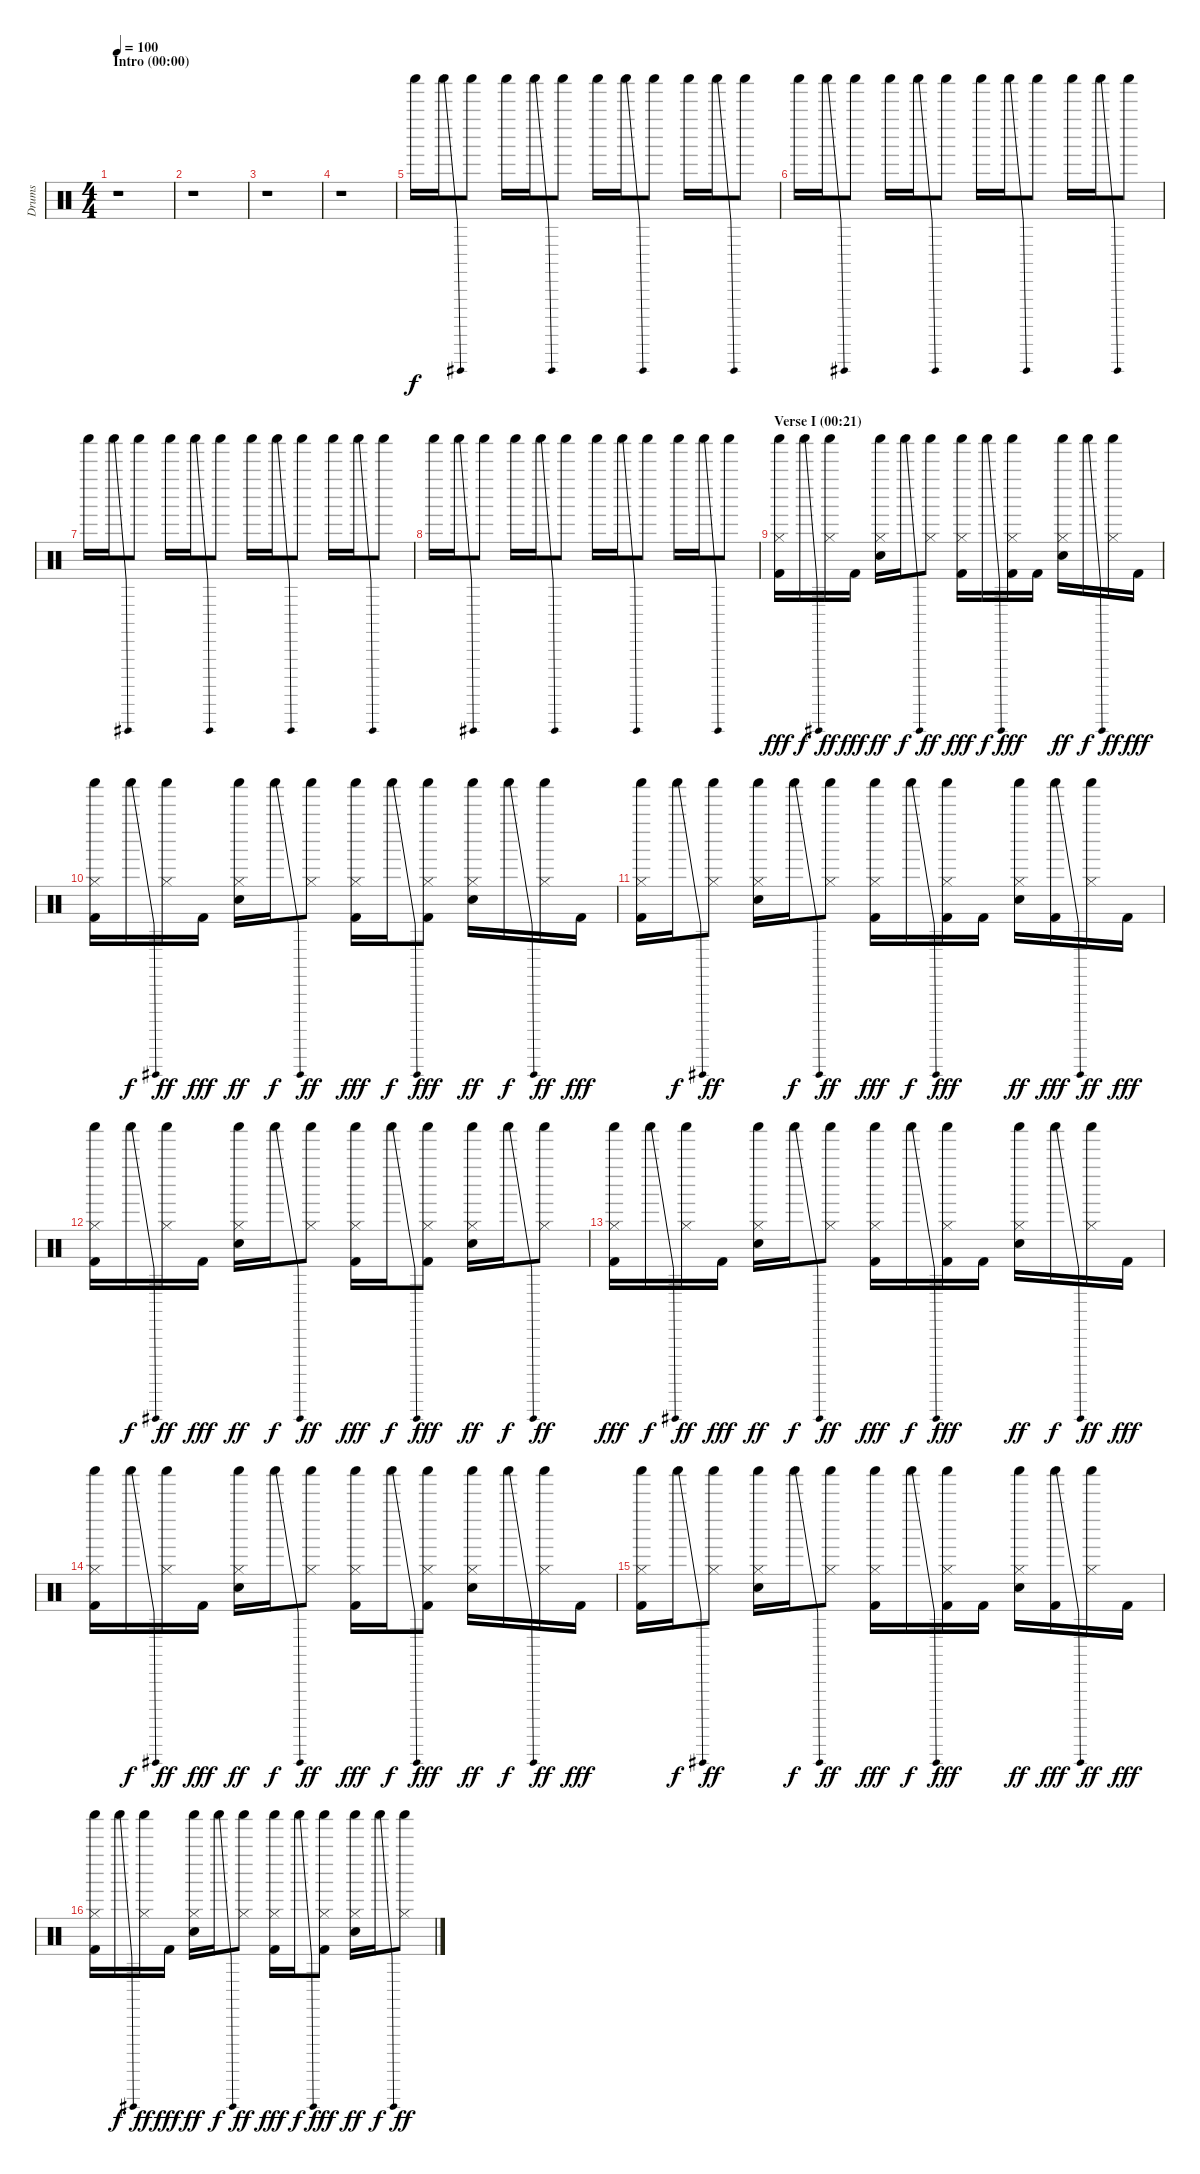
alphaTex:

\track ("Drums" "Drums") {instrument percussion}
\staff {score}
\articulation defaults
\ts (4 4)
\section ("" "Intro (00:00)")
\tempo 100
\clef neutral
\ks c
r.1{dy f} |
r.1 |
r.1 |
r.1 |
"Shaker (hit)".16 "Shaker (hit)"{be (bend 0 0 60 12)}.16 "Shaker (hit)".8 "Shaker (hit)".16 "Shaker (hit)"{be (bend 0 0 60 12)}.16 "Shaker (hit)".8 "Shaker (hit)".16 "Shaker (hit)"{be (bend 0 0 60 12)}.16 "Shaker (hit)".8 "Shaker (hit)".16 "Shaker (hit)"{be (bend 0 0 60 12)}.16 "Shaker (hit)".8 |
"Shaker (hit)".16 "Shaker (hit)"{be (bend 0 0 60 12)}.16 "Shaker (hit)".8 "Shaker (hit)".16 "Shaker (hit)"{be (bend 0 0 60 12)}.16 "Shaker (hit)".8 "Shaker (hit)".16 "Shaker (hit)"{be (bend 0 0 60 12)}.16 "Shaker (hit)".8 "Shaker (hit)".16 "Shaker (hit)"{be (bend 0 0 60 12)}.16 "Shaker (hit)".8 |
"Shaker (hit)".16 "Shaker (hit)"{be (bend 0 0 60 12)}.16 "Shaker (hit)".8 "Shaker (hit)".16 "Shaker (hit)"{be (bend 0 0 60 12)}.16 "Shaker (hit)".8 "Shaker (hit)".16 "Shaker (hit)"{be (bend 0 0 60 12)}.16 "Shaker (hit)".8 "Shaker (hit)".16 "Shaker (hit)"{be (bend 0 0 60 12)}.16 "Shaker (hit)".8 |
"Shaker (hit)".16 "Shaker (hit)"{be (bend 0 0 60 12)}.16 "Shaker (hit)".8 "Shaker (hit)".16 "Shaker (hit)"{be (bend 0 0 60 12)}.16 "Shaker (hit)".8 "Shaker (hit)".16 "Shaker (hit)"{be (bend 0 0 60 12)}.16 "Shaker (hit)".8 "Shaker (hit)".16 "Shaker (hit)"{be (bend 0 0 60 12)}.16 "Shaker (hit)".8 |
\section ("" "Verse I (00:21)")
("Shaker (hit)" "Hi-Hat (closed)" "Kick (hit) 2").16{dy fff} "Shaker (hit)"{be (bend 0 0 60 12)}.16{dy f} ("Shaker (hit)" "Hi-Hat (closed)").16{dy ff} "Kick (hit) 2".16{dy fff} ("Shaker (hit)" "Hi-Hat (closed)" "Electric Snare (hit)").16{dy ff} "Shaker (hit)"{be (bend 0 0 60 12)}.16{dy f} ("Shaker (hit)" "Hi-Hat (closed)").8{dy ff} ("Shaker (hit)" "Hi-Hat (closed)" "Kick (hit) 2").16{dy fff} "Shaker (hit)"{be (bend 0 0 60 12)}.16{dy f} ("Shaker (hit)" "Hi-Hat (closed)" "Kick (hit) 2").16{dy fff} "Kick (hit) 2".16 ("Shaker (hit)" "Hi-Hat (closed)" "Electric Snare (hit)").16{dy ff} "Shaker (hit)"{be (bend 0 0 60 12)}.16{dy f} ("Shaker (hit)" "Hi-Hat (closed)").16{dy ff} "Kick (hit) 2".16{dy fff} |
("Shaker (hit)" "Hi-Hat (closed)" "Kick (hit) 2").16 "Shaker (hit)"{be (bend 0 0 60 12)}.16{dy f} ("Shaker (hit)" "Hi-Hat (closed)").16{dy ff} "Kick (hit) 2".16{dy fff} ("Shaker (hit)" "Hi-Hat (closed)" "Electric Snare (hit)").16{dy ff} "Shaker (hit)"{be (bend 0 0 60 12)}.16{dy f} ("Shaker (hit)" "Hi-Hat (closed)").8{dy ff} ("Shaker (hit)" "Hi-Hat (closed)" "Kick (hit) 2").16{dy fff} "Shaker (hit)"{be (bend 0 0 60 12)}.16{dy f} ("Shaker (hit)" "Hi-Hat (closed)" "Kick (hit) 2").8{dy fff} ("Shaker (hit)" "Hi-Hat (closed)" "Electric Snare (hit)").16{dy ff} "Shaker (hit)"{be (bend 0 0 60 12)}.16{dy f} ("Shaker (hit)" "Hi-Hat (closed)").16{dy ff} "Kick (hit) 2".16{dy fff} |
("Shaker (hit)" "Hi-Hat (closed)" "Kick (hit) 2").16 "Shaker (hit)"{be (bend 0 0 60 12)}.16{dy f} ("Shaker (hit)" "Hi-Hat (closed)").8{dy ff} ("Shaker (hit)" "Hi-Hat (closed)" "Electric Snare (hit)").16 "Shaker (hit)"{be (bend 0 0 60 12)}.16{dy f} ("Shaker (hit)" "Hi-Hat (closed)").8{dy ff} ("Shaker (hit)" "Hi-Hat (closed)" "Kick (hit) 2").16{dy fff} "Shaker (hit)"{be (bend 0 0 60 12)}.16{dy f} ("Shaker (hit)" "Hi-Hat (closed)" "Kick (hit) 2").16{dy fff} "Kick (hit) 2".16 ("Shaker (hit)" "Hi-Hat (closed)" "Electric Snare (hit)").16{dy ff} ("Shaker (hit)"{be (bend 0 0 60 12)} "Kick (hit) 2").16{dy fff} ("Shaker (hit)" "Hi-Hat (closed)").16{dy ff} "Kick (hit) 2".16{dy fff} |
("Shaker (hit)" "Hi-Hat (closed)" "Kick (hit) 2").16 "Shaker (hit)"{be (bend 0 0 60 12)}.16{dy f} ("Shaker (hit)" "Hi-Hat (closed)").16{dy ff} "Kick (hit) 2".16{dy fff} ("Shaker (hit)" "Hi-Hat (closed)" "Electric Snare (hit)").16{dy ff} "Shaker (hit)"{be (bend 0 0 60 12)}.16{dy f} ("Shaker (hit)" "Hi-Hat (closed)").8{dy ff} ("Shaker (hit)" "Hi-Hat (closed)" "Kick (hit) 2").16{dy fff} "Shaker (hit)"{be (bend 0 0 60 12)}.16{dy f} ("Shaker (hit)" "Hi-Hat (closed)" "Kick (hit) 2").8{dy fff} ("Shaker (hit)" "Hi-Hat (closed)" "Electric Snare (hit)").16{dy ff} "Shaker (hit)"{be (bend 0 0 60 12)}.16{dy f} ("Shaker (hit)" "Hi-Hat (closed)").8{dy ff} |
("Shaker (hit)" "Hi-Hat (closed)" "Kick (hit) 2").16{dy fff} "Shaker (hit)"{be (bend 0 0 60 12)}.16{dy f} ("Shaker (hit)" "Hi-Hat (closed)").16{dy ff} "Kick (hit) 2".16{dy fff} ("Shaker (hit)" "Hi-Hat (closed)" "Electric Snare (hit)").16{dy ff} "Shaker (hit)"{be (bend 0 0 60 12)}.16{dy f} ("Shaker (hit)" "Hi-Hat (closed)").8{dy ff} ("Shaker (hit)" "Hi-Hat (closed)" "Kick (hit) 2").16{dy fff} "Shaker (hit)"{be (bend 0 0 60 12)}.16{dy f} ("Shaker (hit)" "Hi-Hat (closed)" "Kick (hit) 2").16{dy fff} "Kick (hit) 2".16 ("Shaker (hit)" "Hi-Hat (closed)" "Electric Snare (hit)").16{dy ff} "Shaker (hit)"{be (bend 0 0 60 12)}.16{dy f} ("Shaker (hit)" "Hi-Hat (closed)").16{dy ff} "Kick (hit) 2".16{dy fff} |
("Shaker (hit)" "Hi-Hat (closed)" "Kick (hit) 2").16 "Shaker (hit)"{be (bend 0 0 60 12)}.16{dy f} ("Shaker (hit)" "Hi-Hat (closed)").16{dy ff} "Kick (hit) 2".16{dy fff} ("Shaker (hit)" "Hi-Hat (closed)" "Electric Snare (hit)").16{dy ff} "Shaker (hit)"{be (bend 0 0 60 12)}.16{dy f} ("Shaker (hit)" "Hi-Hat (closed)").8{dy ff} ("Shaker (hit)" "Hi-Hat (closed)" "Kick (hit) 2").16{dy fff} "Shaker (hit)"{be (bend 0 0 60 12)}.16{dy f} ("Shaker (hit)" "Hi-Hat (closed)" "Kick (hit) 2").8{dy fff} ("Shaker (hit)" "Hi-Hat (closed)" "Electric Snare (hit)").16{dy ff} "Shaker (hit)"{be (bend 0 0 60 12)}.16{dy f} ("Shaker (hit)" "Hi-Hat (closed)").16{dy ff} "Kick (hit) 2".16{dy fff} |
("Shaker (hit)" "Hi-Hat (closed)" "Kick (hit) 2").16 "Shaker (hit)"{be (bend 0 0 60 12)}.16{dy f} ("Shaker (hit)" "Hi-Hat (closed)").8{dy ff} ("Shaker (hit)" "Hi-Hat (closed)" "Electric Snare (hit)").16 "Shaker (hit)"{be (bend 0 0 60 12)}.16{dy f} ("Shaker (hit)" "Hi-Hat (closed)").8{dy ff} ("Shaker (hit)" "Hi-Hat (closed)" "Kick (hit) 2").16{dy fff} "Shaker (hit)"{be (bend 0 0 60 12)}.16{dy f} ("Shaker (hit)" "Hi-Hat (closed)" "Kick (hit) 2").16{dy fff} "Kick (hit) 2".16 ("Shaker (hit)" "Hi-Hat (closed)" "Electric Snare (hit)").16{dy ff} ("Shaker (hit)"{be (bend 0 0 60 12)} "Kick (hit) 2").16{dy fff} ("Shaker (hit)" "Hi-Hat (closed)").16{dy ff} "Kick (hit) 2".16{dy fff} |
("Shaker (hit)" "Hi-Hat (closed)" "Kick (hit) 2").16 "Shaker (hit)"{be (bend 0 0 60 12)}.16{dy f} ("Shaker (hit)" "Hi-Hat (closed)").16{dy ff} "Kick (hit) 2".16{dy fff} ("Shaker (hit)" "Hi-Hat (closed)" "Electric Snare (hit)").16{dy ff} "Shaker (hit)"{be (bend 0 0 60 12)}.16{dy f} ("Shaker (hit)" "Hi-Hat (closed)").8{dy ff} ("Shaker (hit)" "Hi-Hat (closed)" "Kick (hit) 2").16{dy fff} "Shaker (hit)"{be (bend 0 0 60 12)}.16{dy f} ("Shaker (hit)" "Hi-Hat (closed)" "Kick (hit) 2").8{dy fff} ("Shaker (hit)" "Hi-Hat (closed)" "Electric Snare (hit)").16{dy ff} "Shaker (hit)"{be (bend 0 0 60 12)}.16{dy f} ("Shaker (hit)" "Hi-Hat (closed)").8{dy ff}
